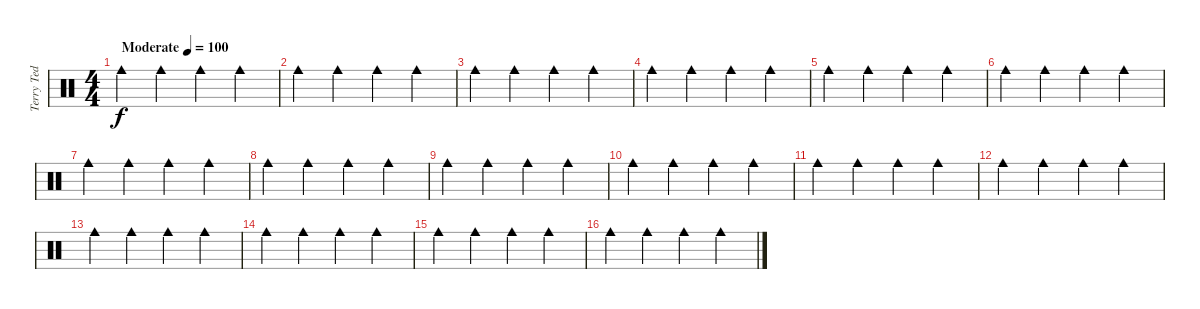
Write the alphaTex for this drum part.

\track ("Terry Ted" "Terry Ted") {instrument percussion}
\staff {score}
\articulation defaults
\ts (4 4)
\tempo (100 "Moderate")
\clef neutral
\ks c "Cowbell medium (hit)".4{dy f beam merge} "Cowbell medium (hit)".4 "Cowbell medium (hit)".4 "Cowbell medium (hit)".4
|
"Cowbell medium (hit)".4 "Cowbell medium (hit)".4{beam merge} "Cowbell medium (hit)".4{beam merge} "Cowbell medium (hit)".4 |
"Cowbell medium (hit)".4{beam merge} "Cowbell medium (hit)".4 "Cowbell medium (hit)".4 "Cowbell medium (hit)".4 |
"Cowbell medium (hit)".4 "Cowbell medium (hit)".4{beam merge} "Cowbell medium (hit)".4{beam merge} "Cowbell medium (hit)".4 |
"Cowbell medium (hit)".4{beam merge} "Cowbell medium (hit)".4 "Cowbell medium (hit)".4 "Cowbell medium (hit)".4 |
"Cowbell medium (hit)".4 "Cowbell medium (hit)".4{beam merge} "Cowbell medium (hit)".4{beam merge} "Cowbell medium (hit)".4 |
"Cowbell medium (hit)".4{beam merge} "Cowbell medium (hit)".4 "Cowbell medium (hit)".4 "Cowbell medium (hit)".4 |
"Cowbell medium (hit)".4 "Cowbell medium (hit)".4{beam merge} "Cowbell medium (hit)".4{beam merge} "Cowbell medium (hit)".4 |
"Cowbell medium (hit)".4{beam merge} "Cowbell medium (hit)".4 "Cowbell medium (hit)".4 "Cowbell medium (hit)".4 |
"Cowbell medium (hit)".4 "Cowbell medium (hit)".4{beam merge} "Cowbell medium (hit)".4{beam merge} "Cowbell medium (hit)".4 |
"Cowbell medium (hit)".4{beam merge} "Cowbell medium (hit)".4 "Cowbell medium (hit)".4 "Cowbell medium (hit)".4 |
"Cowbell medium (hit)".4 "Cowbell medium (hit)".4{beam merge} "Cowbell medium (hit)".4{beam merge} "Cowbell medium (hit)".4 |
"Cowbell medium (hit)".4{beam merge} "Cowbell medium (hit)".4 "Cowbell medium (hit)".4 "Cowbell medium (hit)".4 |
"Cowbell medium (hit)".4 "Cowbell medium (hit)".4{beam merge} "Cowbell medium (hit)".4{beam merge} "Cowbell medium (hit)".4 |
"Cowbell medium (hit)".4{beam merge} "Cowbell medium (hit)".4 "Cowbell medium (hit)".4 "Cowbell medium (hit)".4 |
"Cowbell medium (hit)".4 "Cowbell medium (hit)".4{beam merge} "Cowbell medium (hit)".4{beam merge} "Cowbell medium (hit)".4
